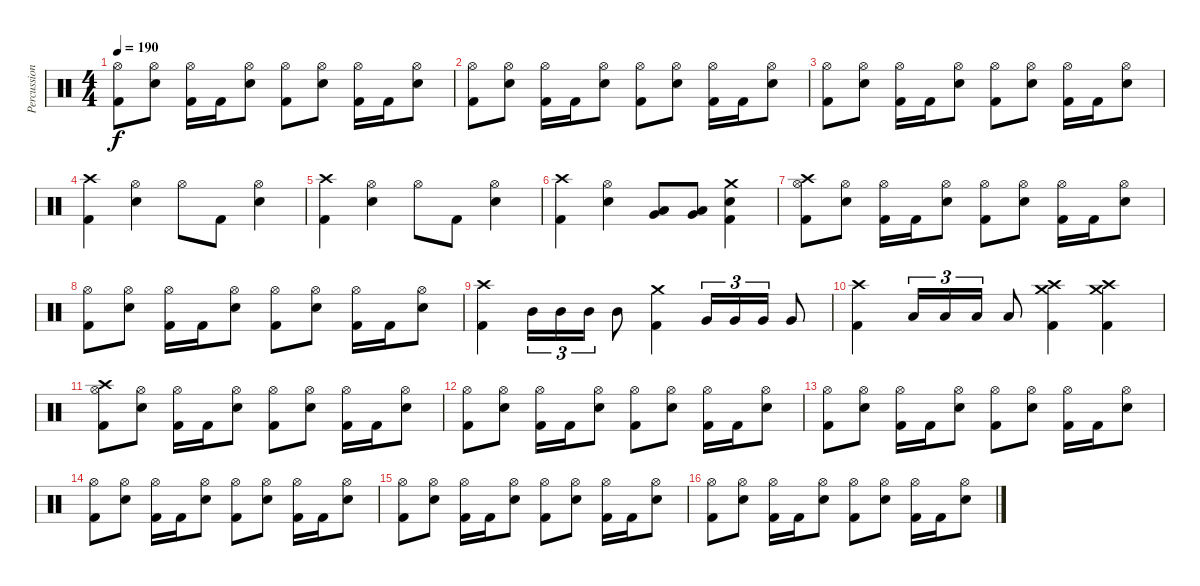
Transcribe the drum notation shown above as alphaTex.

\track ("Percussion" "Percussion") {instrument percussion}
\staff {score}
\articulation defaults
\ts (4 4)
\tempo 190
\clef neutral
\ks c
("Hi-Hat (open)" "Kick (hit) 2").8{dy f} ("Hi-Hat (open)" "Snare (hit) 2").8 ("Hi-Hat (open)" "Kick (hit) 2").16 "Kick (hit) 2".16 ("Hi-Hat (open)" "Snare (hit) 2").8 ("Hi-Hat (open)" "Kick (hit) 2").8 ("Hi-Hat (open)" "Snare (hit) 2").8 ("Hi-Hat (open)" "Kick (hit) 2").16 "Kick (hit) 2".16 ("Hi-Hat (open)" "Snare (hit) 2").8 |
("Hi-Hat (open)" "Kick (hit) 2").8 ("Hi-Hat (open)" "Snare (hit) 2").8 ("Hi-Hat (open)" "Kick (hit) 2").16 "Kick (hit) 2".16 ("Hi-Hat (open)" "Snare (hit) 2").8 ("Hi-Hat (open)" "Kick (hit) 2").8 ("Hi-Hat (open)" "Snare (hit) 2").8 ("Hi-Hat (open)" "Kick (hit) 2").16 "Kick (hit) 2".16 ("Hi-Hat (open)" "Snare (hit) 2").8 |
("Hi-Hat (open)" "Kick (hit) 2").8 ("Hi-Hat (open)" "Snare (hit) 2").8 ("Hi-Hat (open)" "Kick (hit) 2").16 "Kick (hit) 2".16 ("Hi-Hat (open)" "Snare (hit) 2").8 ("Hi-Hat (open)" "Kick (hit) 2").8 ("Hi-Hat (open)" "Snare (hit) 2").8 ("Hi-Hat (open)" "Kick (hit) 2").16 "Kick (hit) 2".16 ("Hi-Hat (open)" "Snare (hit) 2").8 |
("Crash high (hit)" "Kick (hit) 2").4 ("Hi-Hat (open)" "Snare (hit) 2").4 "Hi-Hat (open)".8 "Kick (hit) 2".8 ("Hi-Hat (open)" "Snare (hit) 2").4 |
("Crash high (hit)" "Kick (hit) 2").4 ("Hi-Hat (open)" "Snare (hit) 2").4 "Hi-Hat (open)".8 "Kick (hit) 2".8 ("Hi-Hat (open)" "Snare (hit) 2").4 |
("Crash high (hit)" "Kick (hit) 2").4 ("Hi-Hat (open)" "Snare (hit) 2").4 ("Low Tom (hit)" "Very Low Tom (hit)").8 ("Low Tom (hit)" "Very Low Tom (hit)").8 ("Crash medium (hit)" "Snare (hit) 2" "Kick (hit) 2").4 |
("Crash high (hit)" "Hi-Hat (open)" "Kick (hit) 2").8 ("Hi-Hat (open)" "Snare (hit) 2").8 ("Hi-Hat (open)" "Kick (hit) 2").16 "Kick (hit) 2".16 ("Hi-Hat (open)" "Snare (hit) 2").8 ("Hi-Hat (open)" "Kick (hit) 2").8 ("Hi-Hat (open)" "Snare (hit) 2").8 ("Hi-Hat (open)" "Kick (hit) 2").16 "Kick (hit) 2".16 ("Hi-Hat (open)" "Snare (hit) 2").8 |
("Hi-Hat (open)" "Kick (hit) 2").8 ("Hi-Hat (open)" "Snare (hit) 2").8 ("Hi-Hat (open)" "Kick (hit) 2").16 "Kick (hit) 2".16 ("Hi-Hat (open)" "Snare (hit) 2").8 ("Hi-Hat (open)" "Kick (hit) 2").8 ("Hi-Hat (open)" "Snare (hit) 2").8 ("Hi-Hat (open)" "Kick (hit) 2").16 "Kick (hit) 2".16 ("Hi-Hat (open)" "Snare (hit) 2").8 |
("Crash high (hit)" "Kick (hit) 2").4 "Mid Tom (hit)".16{tu (3 2)} "Mid Tom (hit)".16{tu (3 2)} "Mid Tom (hit)".16{tu (3 2)} "Mid Tom (hit)".8 ("Crash medium (hit)" "Kick (hit) 2").4 "Very Low Tom (hit)".16{tu (3 2)} "Very Low Tom (hit)".16{tu (3 2)} "Very Low Tom (hit)".16{tu (3 2)} "Very Low Tom (hit)".8 |
("Crash high (hit)" "Kick (hit) 2").4 "Low Floor Tom (hit)".16{tu (3 2)} "Low Floor Tom (hit)".16{tu (3 2)} "Low Floor Tom (hit)".16{tu (3 2)} "Low Floor Tom (hit)".8 ("Crash medium (hit)" "Crash high (hit)" "Kick (hit) 2").4 ("Crash medium (hit)" "Crash high (hit)" "Kick (hit) 2").4 |
("Crash high (hit)" "Hi-Hat (open)" "Kick (hit) 2").8 ("Hi-Hat (open)" "Snare (hit) 2").8 ("Hi-Hat (open)" "Kick (hit) 2").16 "Kick (hit) 2".16 ("Hi-Hat (open)" "Snare (hit) 2").8 ("Hi-Hat (open)" "Kick (hit) 2").8 ("Hi-Hat (open)" "Snare (hit) 2").8 ("Hi-Hat (open)" "Kick (hit) 2").16 "Kick (hit) 2".16 ("Hi-Hat (open)" "Snare (hit) 2").8 |
("Hi-Hat (open)" "Kick (hit) 2").8 ("Hi-Hat (open)" "Snare (hit) 2").8 ("Hi-Hat (open)" "Kick (hit) 2").16 "Kick (hit) 2".16 ("Hi-Hat (open)" "Snare (hit) 2").8 ("Hi-Hat (open)" "Kick (hit) 2").8 ("Hi-Hat (open)" "Snare (hit) 2").8 ("Hi-Hat (open)" "Kick (hit) 2").16 "Kick (hit) 2".16 ("Hi-Hat (open)" "Snare (hit) 2").8 |
("Hi-Hat (open)" "Kick (hit) 2").8 ("Hi-Hat (open)" "Snare (hit) 2").8 ("Hi-Hat (open)" "Kick (hit) 2").16 "Kick (hit) 2".16 ("Hi-Hat (open)" "Snare (hit) 2").8 ("Hi-Hat (open)" "Kick (hit) 2").8 ("Hi-Hat (open)" "Snare (hit) 2").8 ("Hi-Hat (open)" "Kick (hit) 2").16 "Kick (hit) 2".16 ("Hi-Hat (open)" "Snare (hit) 2").8 |
("Hi-Hat (open)" "Kick (hit) 2").8 ("Hi-Hat (open)" "Snare (hit) 2").8 ("Hi-Hat (open)" "Kick (hit) 2").16 "Kick (hit) 2".16 ("Hi-Hat (open)" "Snare (hit) 2").8 ("Hi-Hat (open)" "Kick (hit) 2").8 ("Hi-Hat (open)" "Snare (hit) 2").8 ("Hi-Hat (open)" "Kick (hit) 2").16 "Kick (hit) 2".16 ("Hi-Hat (open)" "Snare (hit) 2").8 |
("Hi-Hat (open)" "Kick (hit) 2").8 ("Hi-Hat (open)" "Snare (hit) 2").8 ("Hi-Hat (open)" "Kick (hit) 2").16 "Kick (hit) 2".16 ("Hi-Hat (open)" "Snare (hit) 2").8 ("Hi-Hat (open)" "Kick (hit) 2").8 ("Hi-Hat (open)" "Snare (hit) 2").8 ("Hi-Hat (open)" "Kick (hit) 2").16 "Kick (hit) 2".16 ("Hi-Hat (open)" "Snare (hit) 2").8 |
("Hi-Hat (open)" "Kick (hit) 2").8 ("Hi-Hat (open)" "Snare (hit) 2").8 ("Hi-Hat (open)" "Kick (hit) 2").16 "Kick (hit) 2".16 ("Hi-Hat (open)" "Snare (hit) 2").8 ("Hi-Hat (open)" "Kick (hit) 2").8 ("Hi-Hat (open)" "Snare (hit) 2").8 ("Hi-Hat (open)" "Kick (hit) 2").16 "Kick (hit) 2".16 ("Hi-Hat (open)" "Snare (hit) 2").8
